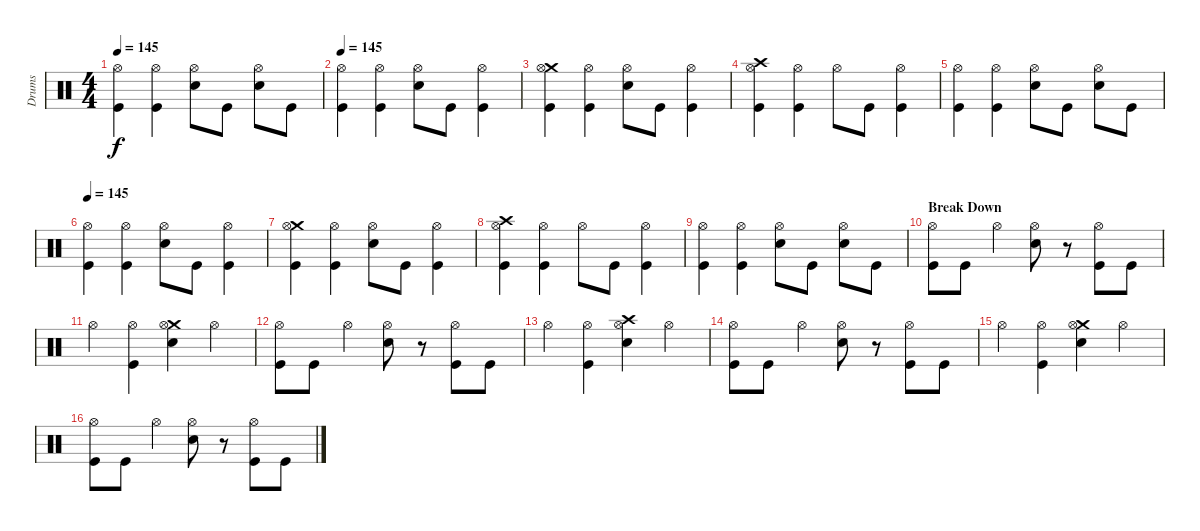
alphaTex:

\track ("Drums" "Drums") {instrument percussion}
\staff {score}
\articulation defaults
\ts (4 4)
\tempo 145
\clef neutral
\ks c
("Hi-Hat (open)" "Kick (hit)").4{dy f} ("Hi-Hat (open)" "Kick (hit)").4 ("Hi-Hat (open)" "Snare (hit) 2").8 "Kick (hit)".8 ("Hi-Hat (open)" "Snare (hit) 2").8 "Kick (hit)".8 |
\tempo 145
("Hi-Hat (open)" "Kick (hit)").4 ("Hi-Hat (open)" "Kick (hit)").4 ("Hi-Hat (open)" "Snare (hit) 2").8 "Kick (hit)".8 ("Hi-Hat (open)" "Kick (hit)").4 |
("Crash medium (hit)" "Hi-Hat (open)" "Kick (hit)").4 ("Hi-Hat (open)" "Kick (hit)").4 ("Hi-Hat (open)" "Snare (hit) 2").8 "Kick (hit)".8 ("Hi-Hat (open)" "Kick (hit)").4 |
("Crash high (hit)" "Hi-Hat (open)" "Kick (hit)").4 ("Hi-Hat (open)" "Kick (hit)").4 "Hi-Hat (open)".8 "Kick (hit)".8 ("Hi-Hat (open)" "Kick (hit)").4 |
("Hi-Hat (open)" "Kick (hit)").4 ("Hi-Hat (open)" "Kick (hit)").4 ("Hi-Hat (open)" "Snare (hit) 2").8 "Kick (hit)".8 ("Hi-Hat (open)" "Snare (hit) 2").8 "Kick (hit)".8 |
\tempo 145
("Hi-Hat (open)" "Kick (hit)").4 ("Hi-Hat (open)" "Kick (hit)").4 ("Hi-Hat (open)" "Snare (hit) 2").8 "Kick (hit)".8 ("Hi-Hat (open)" "Kick (hit)").4 |
("Crash medium (hit)" "Hi-Hat (open)" "Kick (hit)").4 ("Hi-Hat (open)" "Kick (hit)").4 ("Hi-Hat (open)" "Snare (hit) 2").8 "Kick (hit)".8 ("Hi-Hat (open)" "Kick (hit)").4 |
("Crash high (hit)" "Hi-Hat (open)" "Kick (hit)").4 ("Hi-Hat (open)" "Kick (hit)").4 "Hi-Hat (open)".8 "Kick (hit)".8 ("Hi-Hat (open)" "Kick (hit)").4 |
("Hi-Hat (open)" "Kick (hit)").4 ("Hi-Hat (open)" "Kick (hit)").4 ("Hi-Hat (open)" "Snare (hit) 2").8 "Kick (hit)".8 ("Hi-Hat (open)" "Snare (hit) 2").8 "Kick (hit)".8 |
\section ("" "Break Down")
("Hi-Hat (open)" "Kick (hit)").8 "Kick (hit)".8 "Hi-Hat (open)".4 ("Hi-Hat (open)" "Snare (hit) 2").8 r.8 ("Hi-Hat (open)" "Kick (hit)").8 "Kick (hit)".8 |
"Hi-Hat (open)".4 ("Hi-Hat (open)" "Kick (hit)").4 ("Crash medium (hit)" "Hi-Hat (open)" "Snare (hit) 2").4 "Hi-Hat (open)".4 |
("Hi-Hat (open)" "Kick (hit)").8 "Kick (hit)".8 "Hi-Hat (open)".4 ("Hi-Hat (open)" "Snare (hit) 2").8 r.8 ("Hi-Hat (open)" "Kick (hit)").8 "Kick (hit)".8 |
"Hi-Hat (open)".4 ("Hi-Hat (open)" "Kick (hit)").4 ("Crash high (hit)" "Hi-Hat (open)" "Snare (hit) 2").4 "Hi-Hat (open)".4 |
("Hi-Hat (open)" "Kick (hit)").8 "Kick (hit)".8 "Hi-Hat (open)".4 ("Hi-Hat (open)" "Snare (hit) 2").8 r.8 ("Hi-Hat (open)" "Kick (hit)").8 "Kick (hit)".8 |
"Hi-Hat (open)".4 ("Hi-Hat (open)" "Kick (hit)").4 ("Crash medium (hit)" "Hi-Hat (open)" "Snare (hit) 2").4 "Hi-Hat (open)".4 |
("Hi-Hat (open)" "Kick (hit)").8 "Kick (hit)".8 "Hi-Hat (open)".4 ("Hi-Hat (open)" "Snare (hit) 2").8 r.8 ("Hi-Hat (open)" "Kick (hit)").8 "Kick (hit)".8
